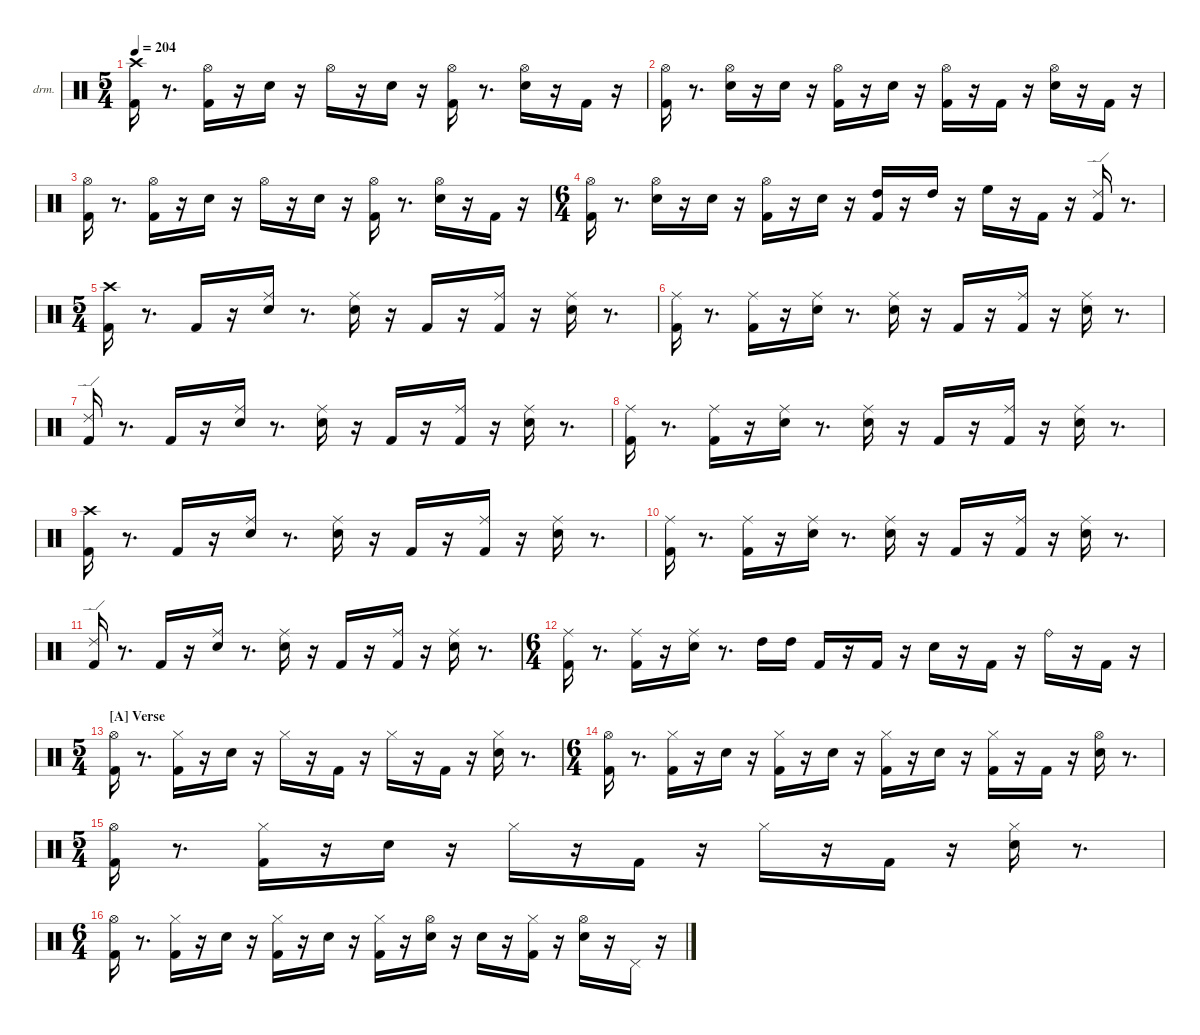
\hideDynamics
\bracketExtendMode nobrackets
\firstSystemTrackNameOrientation horizontal
\otherSystemsTrackNameOrientation horizontal
\track ("drums" "drm.") {instrument percussion}
\staff {score}
\articulation defaults
\ts (5 4)
\tempo 204
\clef neutral
\ks aminor
("Kick (hit) 2" "Crash high (hit)"{acc #}).16{dy fff beam Down} r.8{d beam Down} ("Kick (hit) 2" "Hi-Hat (open)"{acc #}).16{dy f beam Down} r.16{beam Down} "Snare (hit) 2".16{dy ff beam Down} r.16{beam Down} "Hi-Hat (open)"{acc #}.16{dy f beam Down} r.16{beam Down} "Snare (hit) 2".16{beam Down} r.16{beam Down} ("Kick (hit) 2" "Hi-Hat (open)"{acc #}).16{dy ff beam Down} r.8{d beam Down} ("Snare (hit) 2" "Hi-Hat (open)"{acc #}).16{beam Down} r.16{beam Down} "Kick (hit) 2".16{dy mf beam Up} r.16{beam Up} |
("Kick (hit) 2" "Hi-Hat (open)"{acc #}).16{dy fff beam Down} r.8{d beam Down} ("Snare (hit) 2" "Hi-Hat (open)"{acc #}).16{dy ff beam Down} r.16{beam Down} "Snare (hit) 2".16{dy mp beam Down} r.16{beam Down} ("Kick (hit) 2" "Hi-Hat (open)"{acc #}).16{dy ff beam Down} r.16{beam Down} "Snare (hit) 2".16{dy mf beam Down} r.16{beam Down} ("Kick (hit) 2" "Hi-Hat (open)"{acc #}).16{beam Down} r.16{beam Down} "Kick (hit) 2".16{dy fff beam Up} r.16{beam Up} ("Snare (hit) 2" "Hi-Hat (open)"{acc #}).16{dy ff beam Down} r.16{beam Down} "Kick (hit) 2".16{dy mp beam Up} r.16{beam Up} |
("Kick (hit) 2" "Hi-Hat (open)"{acc #}).16{dy fff beam Down} r.8{d beam Down} ("Kick (hit) 2" "Hi-Hat (open)"{acc #}).16{dy f beam Down} r.16{beam Down} "Snare (hit) 2".16{dy ff beam Down} r.16{beam Down} "Hi-Hat (open)"{acc #}.16{dy f beam Down} r.16{beam Down} "Snare (hit) 2".16{beam Down} r.16{beam Down} ("Kick (hit) 2" "Hi-Hat (open)"{acc #}).16{dy ff beam Down} r.8{d beam Down} ("Snare (hit) 2" "Hi-Hat (open)"{acc #}).16{beam Down} r.16{beam Down} "Kick (hit) 2".16{dy mf beam Up} r.16{beam Up} |
\ts (6 4)
("Kick (hit) 2" "Hi-Hat (open)"{acc #}).16{dy fff beam Down} r.8{d beam Down} ("Snare (hit) 2" "Hi-Hat (open)"{acc #}).16{dy ff beam Down} r.16{beam Down} "Snare (hit) 2".16{dy mp beam Down} r.16{beam Down} ("Kick (hit) 2" "Hi-Hat (open)"{acc #}).16{dy ff beam Down} r.16{beam Down} "Snare (hit) 2".16{dy mf beam Down} r.16{beam Down} ("Kick (hit) 2" "High Tom (hit)").16{dy fff beam Up} r.16{beam Up} "High Tom (hit)".16{dy mp beam Down} r.16{beam Down} "High Floor Tom (hit)".16{dy ff beam Down} r.16{beam Down} "Kick (hit) 2".16{dy mp beam Up} r.16{beam Up} ("Kick (hit) 2" "Ride (edge) 2").16{dy ff beam Up} r.8{d beam Up} |
\ts (5 4)
("Kick (hit) 2" "Crash high (hit)"{acc #}).16{dy fff beam Down} r.8{d beam Down} "Kick (hit) 2".16{dy ff beam Up} r.16{beam Up} ("Snare (hit) 2" "Ride (middle)"{acc #}).16{dy fff beam Down} r.8{d beam Down} ("Snare (hit) 2" "Ride (middle)"{acc #}).16{dy mf beam Down} r.16{beam Down} "Kick (hit) 2".16{beam Up} r.16{beam Up} ("Kick (hit) 2" "Ride (middle)"{acc #}).16{dy fff beam Down} r.16{beam Down} ("Snare (hit) 2" "Ride (middle)"{acc #}).16{dy ff beam Down} r.8{d beam Down} |
("Kick (hit) 2" "Ride (middle)"{acc #}).16{dy fff beam Down} r.8{d beam Down} ("Kick (hit) 2" "Ride (middle)"{acc #}).16{dy ff beam Down} r.16{beam Down} ("Snare (hit) 2" "Ride (middle)"{acc #}).16{dy fff beam Down} r.8{d beam Down} ("Snare (hit) 2" "Ride (middle)"{acc #}).16{dy mf beam Down} r.16{beam Down} "Kick (hit) 2".16{beam Up} r.16{beam Up} ("Kick (hit) 2" "Ride (middle)"{acc #}).16{dy fff beam Down} r.16{beam Down} ("Snare (hit) 2" "Ride (middle)"{acc #}).16{dy ff beam Down} r.8{d beam Down} |
("Kick (hit) 2" "Ride (edge) 2").16{dy fff beam Up} r.8{d beam Up} "Kick (hit) 2".16{dy ff beam Up} r.16{beam Up} ("Snare (hit) 2" "Ride (middle)"{acc #}).16{dy fff beam Down} r.8{d beam Down} ("Snare (hit) 2" "Ride (middle)"{acc #}).16{dy mf beam Down} r.16{beam Down} "Kick (hit) 2".16{beam Up} r.16{beam Up} ("Kick (hit) 2" "Ride (middle)"{acc #}).16{dy fff beam Down} r.16{beam Down} ("Snare (hit) 2" "Ride (middle)"{acc #}).16{dy ff beam Down} r.8{d beam Down} |
("Kick (hit) 2" "Ride (middle)"{acc #}).16{dy fff beam Down} r.8{d beam Down} ("Kick (hit) 2" "Ride (middle)"{acc #}).16{dy ff beam Down} r.16{beam Down} ("Snare (hit) 2" "Ride (middle)"{acc #}).16{dy fff beam Down} r.8{d beam Down} ("Snare (hit) 2" "Ride (middle)"{acc #}).16{dy mf beam Down} r.16{beam Down} "Kick (hit) 2".16{beam Up} r.16{beam Up} ("Kick (hit) 2" "Ride (middle)"{acc #}).16{dy fff beam Down} r.16{beam Down} ("Snare (hit) 2" "Ride (middle)"{acc #}).16{dy ff beam Down} r.8{d beam Down} |
("Kick (hit) 2" "Crash high (hit)"{acc #}).16{dy fff beam Down} r.8{d beam Down} "Kick (hit) 2".16{dy ff beam Up} r.16{beam Up} ("Snare (hit) 2" "Ride (middle)"{acc #}).16{dy fff beam Down} r.8{d beam Down} ("Snare (hit) 2" "Ride (middle)"{acc #}).16{dy mf beam Down} r.16{beam Down} "Kick (hit) 2".16{beam Up} r.16{beam Up} ("Kick (hit) 2" "Ride (middle)"{acc #}).16{dy fff beam Down} r.16{beam Down} ("Snare (hit) 2" "Ride (middle)"{acc #}).16{dy ff beam Down} r.8{d beam Down} |
("Kick (hit) 2" "Ride (middle)"{acc #}).16{dy fff beam Down} r.8{d beam Down} ("Kick (hit) 2" "Ride (middle)"{acc #}).16{dy ff beam Down} r.16{beam Down} ("Snare (hit) 2" "Ride (middle)"{acc #}).16{dy fff beam Down} r.8{d beam Down} ("Snare (hit) 2" "Ride (middle)"{acc #}).16{dy mf beam Down} r.16{beam Down} "Kick (hit) 2".16{beam Up} r.16{beam Up} ("Kick (hit) 2" "Ride (middle)"{acc #}).16{dy fff beam Down} r.16{beam Down} ("Snare (hit) 2" "Ride (middle)"{acc #}).16{dy ff beam Down} r.8{d beam Down} |
("Kick (hit) 2" "Ride (edge) 2").16{dy fff beam Up} r.8{d beam Up} "Kick (hit) 2".16{dy ff beam Up} r.16{beam Up} ("Snare (hit) 2" "Ride (middle)"{acc #}).16{dy fff beam Down} r.8{d beam Down} ("Snare (hit) 2" "Ride (middle)"{acc #}).16{dy mf beam Down} r.16{beam Down} "Kick (hit) 2".16{beam Up} r.16{beam Up} ("Kick (hit) 2" "Ride (middle)"{acc #}).16{dy fff beam Down} r.16{beam Down} ("Snare (hit) 2" "Ride (middle)"{acc #}).16{dy ff beam Down} r.8{d beam Down} |
\ts (6 4)
("Kick (hit) 2" "Ride (middle)"{acc #}).16{dy fff beam Down} r.8{d beam Down} ("Kick (hit) 2" "Ride (middle)"{acc #}).16{dy ff beam Down} r.16{beam Down} ("Snare (hit) 2" "Ride (middle)"{acc #}).16{dy fff beam Down} r.8{d beam Down} "High Tom (hit)".16{dy ff beam Down} "High Tom (hit)".16{dy mf beam Down} "Kick (hit) 2".16{beam Up} r.16{beam Up} "Kick (hit) 2".16{dy fff beam Up} r.16{beam Up} "Snare (hit) 2".16{beam Down} r.16{beam Down} "Kick (hit) 2".16{dy mf beam Up} r.16{beam Up} "Ride (bell)".16{dy f beam Down} r.16{beam Down} "Kick (hit) 2".16{dy mf beam Up} r.16{beam Up} |
\ts (5 4)
\section ("A" "Verse")
("Kick (hit) 2" "Hi-Hat (open)"{acc #}).16{dy fff beam Down} r.8{d beam Down} ("Kick (hit) 2" "Hi-Hat (closed)"{acc #}).16{dy ff beam Down} r.16{beam Down} "Snare (hit) 2".16{dy f beam Down} r.16{beam Down} "Hi-Hat (closed)"{acc #}.16{dy ff beam Down} r.16{beam Down} "Kick (hit) 2".16{beam Up} r.16{beam Up} "Hi-Hat (closed)"{acc #}.16{dy f beam Down} r.16{beam Down} "Kick (hit) 2".16{dy ff beam Up} r.16{beam Up} ("Snare (hit) 2" "Hi-Hat (closed)"{acc #}).16{dy f beam Down} r.8{d beam Down} |
\ts (6 4)
("Kick (hit) 2" "Hi-Hat (open)"{acc #}).16{dy ff beam Down} r.8{d beam Down} ("Kick (hit) 2" "Hi-Hat (closed)"{acc #}).16{beam Down} r.16{beam Down} "Snare (hit) 2".16{dy f beam Down} r.16{beam Down} ("Kick (hit) 2" "Hi-Hat (closed)"{acc #}).16{dy ff beam Down} r.16{beam Down} "Snare (hit) 2".16{beam Down} r.16{beam Down} ("Kick (hit) 2" "Hi-Hat (closed)"{acc #}).16{beam Down} r.16{beam Down} "Snare (hit) 2".16{dy mf beam Down} r.16{beam Down} ("Kick (hit) 2" "Hi-Hat (closed)"{acc #}).16{dy f beam Down} r.16{beam Down} "Kick (hit) 2".16{dy ff beam Up} r.16{beam Up} ("Snare (hit) 2" "Hi-Hat (open)"{acc #}).16{beam Down} r.8{d beam Down} |
\ts (5 4)
("Kick (hit) 2" "Hi-Hat (open)"{acc #}).16{beam Down} r.8{d beam Down} ("Kick (hit) 2" "Hi-Hat (closed)"{acc #}).16{beam Down} r.16{beam Down} "Snare (hit) 2".16{dy f beam Down} r.16{beam Down} "Hi-Hat (closed)"{acc #}.16{dy ff beam Down} r.16{beam Down} "Kick (hit) 2".16{beam Up} r.16{beam Up} "Hi-Hat (closed)"{acc #}.16{beam Down} r.16{beam Down} "Kick (hit) 2".16{beam Up} r.16{beam Up} ("Snare (hit) 2" "Hi-Hat (closed)"{acc #}).16{beam Down} r.8{d beam Down} |
\ts (6 4)
("Kick (hit) 2" "Hi-Hat (open)"{acc #}).16{beam Down} r.8{d beam Down} ("Kick (hit) 2" "Hi-Hat (closed)"{acc #}).16{beam Down} r.16{beam Down} "Snare (hit) 2".16{dy f beam Down} r.16{beam Down} ("Kick (hit) 2" "Hi-Hat (closed)"{acc #}).16{dy ff beam Down} r.16{beam Down} "Snare (hit) 2".16{beam Down} r.16{beam Down} ("Kick (hit) 2" "Hi-Hat (closed)"{acc #}).16{dy f beam Down} r.16{beam Down} ("Snare (hit) 2" "Hi-Hat (open)"{acc #}).16{dy ff beam Down} r.16{beam Down} "Snare (hit) 2".16{dy mf beam Down} r.16{beam Down} ("Kick (hit) 2" "Hi-Hat (closed)"{acc #}).16{dy ff beam Down} r.16{beam Down} ("Snare (hit) 2" "Hi-Hat (open)"{acc #}).16{beam Down} r.16{beam Down} "Pedal Hi-Hat (hit)"{acc #}.16{dy f beam Up} r.16{beam Up}
